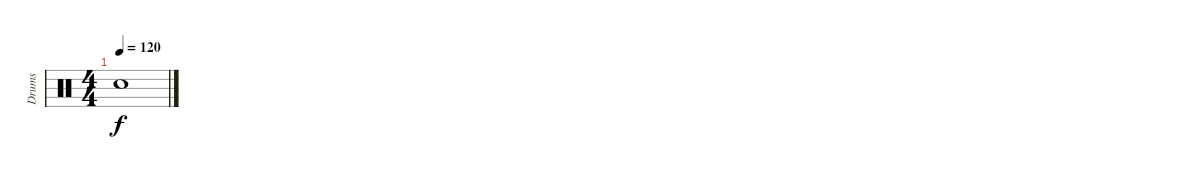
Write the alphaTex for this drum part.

\track ("Drums" "Drums") {instrument percussion}
\staff {score}
\articulation defaults
\ts (4 4)
\tempo 120
\clef neutral
\ks c "Snare (hit)"{t}.1{dy f}
